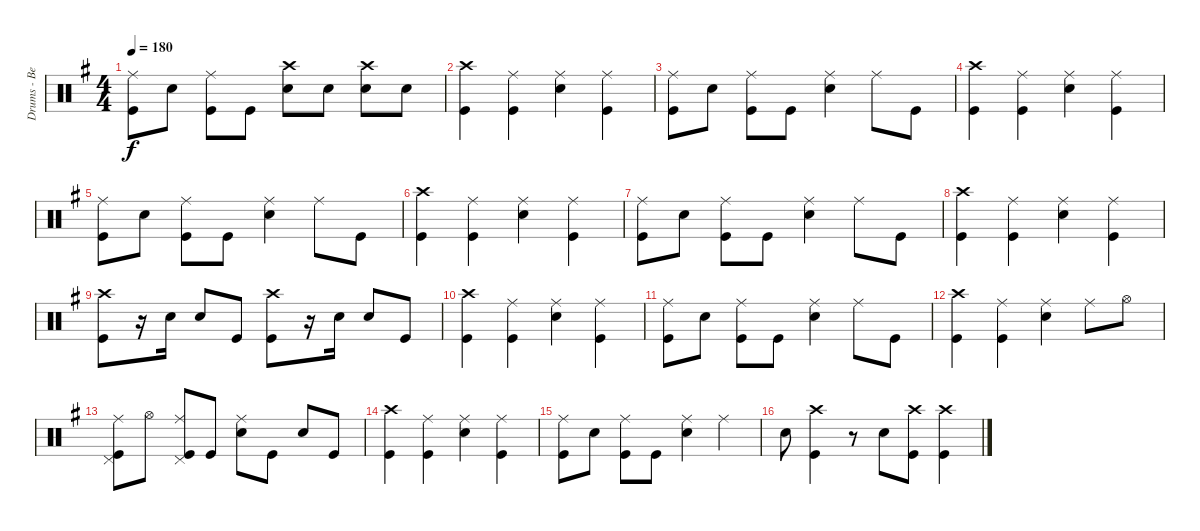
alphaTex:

\track ("Drums - Ben Johnston" "Drums - Be") {instrument percussion}
\staff {score}
\articulation defaults
\ts (4 4)
\tempo 180
\clef neutral
\ks eminor
("Ride (middle)" "Kick (hit)").8{dy f} "Snare (hit) 2".8 ("Ride (middle)" "Kick (hit)").8 "Kick (hit)".8 ("Crash high (hit)" "Snare (hit) 2").8 "Snare (hit) 2".8 ("Crash high (hit)" "Snare (hit) 2").8 "Snare (hit) 2".8 |
("Crash high (hit)" "Kick (hit)").4 ("Ride (middle)" "Kick (hit)").4 ("Ride (middle)" "Snare (hit) 2").4 ("Ride (middle)" "Kick (hit)").4 |
("Ride (middle)" "Kick (hit)").8 "Snare (hit) 2".8 ("Ride (middle)" "Kick (hit)").8 "Kick (hit)".8 ("Ride (middle)" "Snare (hit) 2").4 "Ride (middle)".8 "Kick (hit)".8 |
("Crash high (hit)" "Kick (hit)").4 ("Ride (middle)" "Kick (hit)").4 ("Ride (middle)" "Snare (hit) 2").4 ("Ride (middle)" "Kick (hit)").4 |
("Ride (middle)" "Kick (hit)").8 "Snare (hit) 2".8 ("Ride (middle)" "Kick (hit)").8 "Kick (hit)".8 ("Ride (middle)" "Snare (hit) 2").4 "Ride (middle)".8 "Kick (hit)".8 |
("Crash high (hit)" "Kick (hit)").4 ("Ride (middle)" "Kick (hit)").4 ("Ride (middle)" "Snare (hit) 2").4 ("Ride (middle)" "Kick (hit)").4 |
("Ride (middle)" "Kick (hit)").8 "Snare (hit) 2".8 ("Ride (middle)" "Kick (hit)").8 "Kick (hit)".8 ("Ride (middle)" "Snare (hit) 2").4 "Ride (middle)".8 "Kick (hit)".8 |
("Crash high (hit)" "Kick (hit)").4 ("Ride (middle)" "Kick (hit)").4 ("Ride (middle)" "Snare (hit) 2").4 ("Ride (middle)" "Kick (hit)").4 |
("Crash high (hit)" "Kick (hit)").8 r.16 "Snare (hit) 2".16 "Snare (hit) 2".8 "Kick (hit)".8 ("Crash high (hit)" "Kick (hit)").8 r.16 "Snare (hit) 2".16 "Snare (hit) 2".8 "Kick (hit)".8 |
("Crash high (hit)" "Kick (hit)").4 ("Ride (middle)" "Kick (hit)").4 ("Ride (middle)" "Snare (hit) 2").4 ("Ride (middle)" "Kick (hit)").4 |
("Ride (middle)" "Kick (hit)").8 "Snare (hit) 2".8 ("Ride (middle)" "Kick (hit)").8 "Kick (hit)".8 ("Ride (middle)" "Snare (hit) 2").4 "Ride (middle)".8 "Kick (hit)".8 |
("Crash high (hit)" "Kick (hit)").4 ("Ride (middle)" "Kick (hit)").4 ("Ride (middle)" "Snare (hit) 2").4 "Ride (middle)".8 "Hi-Hat (open)".8 |
("Ride (middle)" "Pedal Hi-Hat (hit)" "Kick (hit)").8 "Hi-Hat (open)".8 ("Ride (middle)" "Pedal Hi-Hat (hit)" "Kick (hit)").8 "Kick (hit)".8 ("Ride (middle)" "Snare (hit) 2").8 "Kick (hit)".8 "Snare (hit) 2".8 "Kick (hit)".8 |
("Crash high (hit)" "Kick (hit)").4 ("Ride (middle)" "Kick (hit)").4 ("Ride (middle)" "Snare (hit) 2").4 ("Ride (middle)" "Kick (hit)").4 |
("Ride (middle)" "Kick (hit)").8 "Snare (hit) 2".8 ("Ride (middle)" "Kick (hit)").8 "Kick (hit)".8 ("Ride (middle)" "Snare (hit) 2").4 "Ride (middle)".4 |
"Snare (hit) 2".8 ("Crash high (hit)" "Kick (hit)").4 r.8 "Snare (hit) 2".8 ("Crash high (hit)" "Kick (hit)").8 ("Crash high (hit)" "Kick (hit)").4
